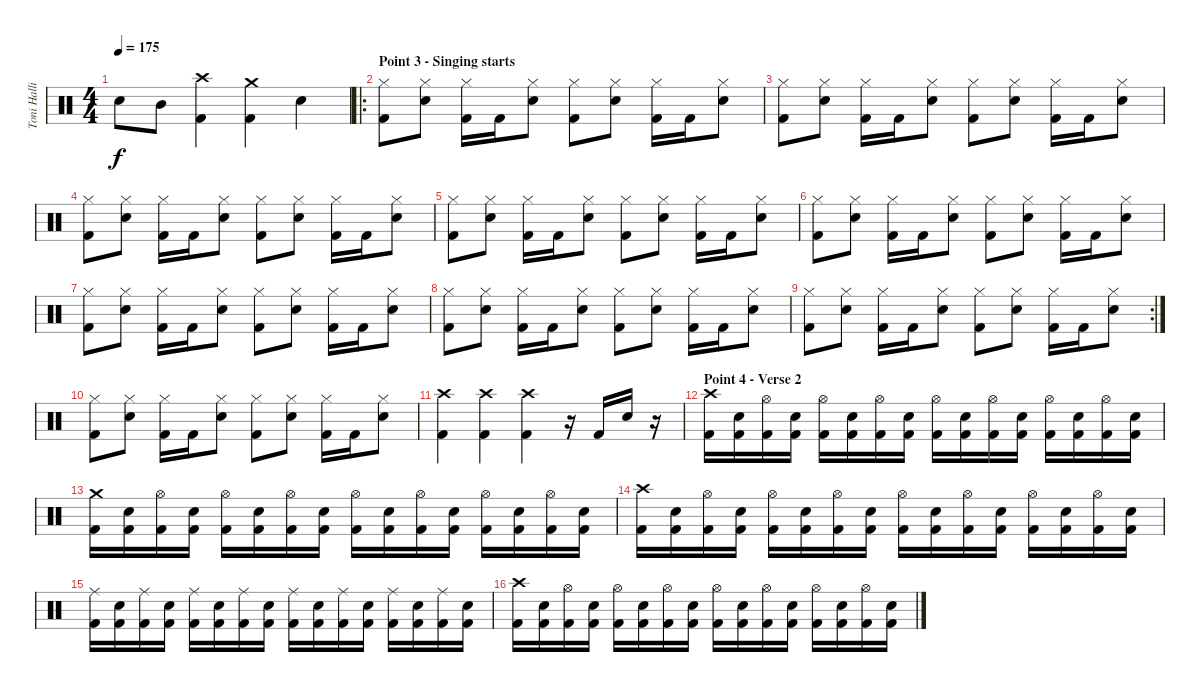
\track ("Toni Hallio" "Toni Halli") {instrument percussion}
\staff {score}
\articulation defaults
\ts (4 4)
\tempo 175
\clef neutral
\ks c "Snare (hit) 2".8{dy f} "Mid Tom (hit)".8
("Crash high (hit)" "Kick (hit) 2").4 ("Crash medium (hit)" "Kick (hit) 2").4 "Snare (hit) 2".4 |
\ro
\section ("" "Point 3 - Singing starts")
("Hi-Hat (closed)" "Kick (hit) 2").8 ("Hi-Hat (closed)" "Snare (hit) 2").8 ("Hi-Hat (closed)" "Kick (hit) 2").16 "Kick (hit) 2".16 ("Hi-Hat (closed)" "Snare (hit) 2").8 ("Hi-Hat (closed)" "Kick (hit) 2").8 ("Hi-Hat (closed)" "Snare (hit) 2").8 ("Hi-Hat (closed)" "Kick (hit) 2").16 "Kick (hit) 2".16 ("Hi-Hat (closed)" "Snare (hit) 2").8 |
("Hi-Hat (closed)" "Kick (hit) 2").8 ("Hi-Hat (closed)" "Snare (hit) 2").8 ("Hi-Hat (closed)" "Kick (hit) 2").16 "Kick (hit) 2".16 ("Hi-Hat (closed)" "Snare (hit) 2").8 ("Hi-Hat (closed)" "Kick (hit) 2").8 ("Hi-Hat (closed)" "Snare (hit) 2").8 ("Hi-Hat (closed)" "Kick (hit) 2").16 "Kick (hit) 2".16 ("Hi-Hat (closed)" "Snare (hit) 2").8 |
("Hi-Hat (closed)" "Kick (hit) 2").8 ("Hi-Hat (closed)" "Snare (hit) 2").8 ("Hi-Hat (closed)" "Kick (hit) 2").16 "Kick (hit) 2".16 ("Hi-Hat (closed)" "Snare (hit) 2").8 ("Hi-Hat (closed)" "Kick (hit) 2").8 ("Hi-Hat (closed)" "Snare (hit) 2").8 ("Hi-Hat (closed)" "Kick (hit) 2").16 "Kick (hit) 2".16 ("Hi-Hat (closed)" "Snare (hit) 2").8 |
("Hi-Hat (closed)" "Kick (hit) 2").8 ("Hi-Hat (closed)" "Snare (hit) 2").8 ("Hi-Hat (closed)" "Kick (hit) 2").16 "Kick (hit) 2".16 ("Hi-Hat (closed)" "Snare (hit) 2").8 ("Hi-Hat (closed)" "Kick (hit) 2").8 ("Hi-Hat (closed)" "Snare (hit) 2").8 ("Hi-Hat (closed)" "Kick (hit) 2").16 "Kick (hit) 2".16 ("Hi-Hat (closed)" "Snare (hit) 2").8 |
("Hi-Hat (closed)" "Kick (hit) 2").8 ("Hi-Hat (closed)" "Snare (hit) 2").8 ("Hi-Hat (closed)" "Kick (hit) 2").16 "Kick (hit) 2".16 ("Hi-Hat (closed)" "Snare (hit) 2").8 ("Hi-Hat (closed)" "Kick (hit) 2").8 ("Hi-Hat (closed)" "Snare (hit) 2").8 ("Hi-Hat (closed)" "Kick (hit) 2").16 "Kick (hit) 2".16 ("Hi-Hat (closed)" "Snare (hit) 2").8 |
("Hi-Hat (closed)" "Kick (hit) 2").8 ("Hi-Hat (closed)" "Snare (hit) 2").8 ("Hi-Hat (closed)" "Kick (hit) 2").16 "Kick (hit) 2".16 ("Hi-Hat (closed)" "Snare (hit) 2").8 ("Hi-Hat (closed)" "Kick (hit) 2").8 ("Hi-Hat (closed)" "Snare (hit) 2").8 ("Hi-Hat (closed)" "Kick (hit) 2").16 "Kick (hit) 2".16 ("Hi-Hat (closed)" "Snare (hit) 2").8 |
("Hi-Hat (closed)" "Kick (hit) 2").8 ("Hi-Hat (closed)" "Snare (hit) 2").8 ("Hi-Hat (closed)" "Kick (hit) 2").16 "Kick (hit) 2".16 ("Hi-Hat (closed)" "Snare (hit) 2").8 ("Hi-Hat (closed)" "Kick (hit) 2").8 ("Hi-Hat (closed)" "Snare (hit) 2").8 ("Hi-Hat (closed)" "Kick (hit) 2").16 "Kick (hit) 2".16 ("Hi-Hat (closed)" "Snare (hit) 2").8 |
\rc 2
("Hi-Hat (closed)" "Kick (hit) 2").8 ("Hi-Hat (closed)" "Snare (hit) 2").8 ("Hi-Hat (closed)" "Kick (hit) 2").16 "Kick (hit) 2".16 ("Hi-Hat (closed)" "Snare (hit) 2").8 ("Hi-Hat (closed)" "Kick (hit) 2").8 ("Hi-Hat (closed)" "Snare (hit) 2").8 ("Hi-Hat (closed)" "Kick (hit) 2").16 "Kick (hit) 2".16 ("Hi-Hat (closed)" "Snare (hit) 2").8 |
("Hi-Hat (closed)" "Kick (hit) 2").8 ("Hi-Hat (closed)" "Snare (hit) 2").8 ("Hi-Hat (closed)" "Kick (hit) 2").16 "Kick (hit) 2".16 ("Hi-Hat (closed)" "Snare (hit) 2").8 ("Hi-Hat (closed)" "Kick (hit) 2").8 ("Hi-Hat (closed)" "Snare (hit) 2").8 ("Hi-Hat (closed)" "Kick (hit) 2").16 "Kick (hit) 2".16 ("Hi-Hat (closed)" "Snare (hit) 2").8 |
("Crash high (hit)" "Kick (hit) 2").4 ("Crash high (hit)" "Kick (hit) 2").4 ("Crash high (hit)" "Kick (hit) 2").4 r.16 "Kick (hit) 2".16 "Snare (hit) 2".16 r.16 |
\section ("" "Point 4 - Verse 2")
("Crash high (hit)" "Kick (hit) 2").16 ("Snare (hit) 2" "Kick (hit) 2").16 ("Hi-Hat (open)" "Kick (hit) 2").16 ("Snare (hit) 2" "Kick (hit) 2").16 ("Hi-Hat (open)" "Kick (hit) 2").16 ("Snare (hit) 2" "Kick (hit) 2").16 ("Hi-Hat (open)" "Kick (hit) 2").16 ("Snare (hit) 2" "Kick (hit) 2").16 ("Hi-Hat (open)" "Kick (hit) 2").16 ("Snare (hit) 2" "Kick (hit) 2").16 ("Hi-Hat (open)" "Kick (hit) 2").16 ("Snare (hit) 2" "Kick (hit) 2").16 ("Hi-Hat (open)" "Kick (hit) 2").16 ("Snare (hit) 2" "Kick (hit) 2").16 ("Hi-Hat (open)" "Kick (hit) 2").16 ("Snare (hit) 2" "Kick (hit) 2").16 |
("Crash medium (hit)" "Kick (hit) 2").16 ("Snare (hit) 2" "Kick (hit) 2").16 ("Hi-Hat (open)" "Kick (hit) 2").16 ("Snare (hit) 2" "Kick (hit) 2").16 ("Hi-Hat (open)" "Kick (hit) 2").16 ("Snare (hit) 2" "Kick (hit) 2").16 ("Hi-Hat (open)" "Kick (hit) 2").16 ("Snare (hit) 2" "Kick (hit) 2").16 ("Hi-Hat (open)" "Kick (hit) 2").16 ("Snare (hit) 2" "Kick (hit) 2").16 ("Hi-Hat (open)" "Kick (hit) 2").16 ("Snare (hit) 2" "Kick (hit) 2").16 ("Hi-Hat (open)" "Kick (hit) 2").16 ("Snare (hit) 2" "Kick (hit) 2").16 ("Hi-Hat (open)" "Kick (hit) 2").16 ("Snare (hit) 2" "Kick (hit) 2").16 |
("Crash high (hit)" "Kick (hit) 2").16 ("Snare (hit) 2" "Kick (hit) 2").16 ("Hi-Hat (open)" "Kick (hit) 2").16 ("Snare (hit) 2" "Kick (hit) 2").16 ("Hi-Hat (open)" "Kick (hit) 2").16 ("Snare (hit) 2" "Kick (hit) 2").16 ("Hi-Hat (open)" "Kick (hit) 2").16 ("Snare (hit) 2" "Kick (hit) 2").16 ("Hi-Hat (open)" "Kick (hit) 2").16 ("Snare (hit) 2" "Kick (hit) 2").16 ("Hi-Hat (open)" "Kick (hit) 2").16 ("Snare (hit) 2" "Kick (hit) 2").16 ("Hi-Hat (open)" "Kick (hit) 2").16 ("Snare (hit) 2" "Kick (hit) 2").16 ("Hi-Hat (open)" "Kick (hit) 2").16 ("Snare (hit) 2" "Kick (hit) 2").16 |
("Ride (middle)" "Kick (hit) 2").16 ("Snare (hit) 2" "Kick (hit) 2").16 ("Ride (middle)" "Kick (hit) 2").16 ("Snare (hit) 2" "Kick (hit) 2").16 ("Ride (middle)" "Kick (hit) 2").16 ("Snare (hit) 2" "Kick (hit) 2").16 ("Ride (middle)" "Kick (hit) 2").16 ("Snare (hit) 2" "Kick (hit) 2").16 ("Ride (middle)" "Kick (hit) 2").16 ("Snare (hit) 2" "Kick (hit) 2").16 ("Ride (middle)" "Kick (hit) 2").16 ("Snare (hit) 2" "Kick (hit) 2").16 ("Ride (middle)" "Kick (hit) 2").16 ("Snare (hit) 2" "Kick (hit) 2").16 ("Ride (middle)" "Kick (hit) 2").16 ("Snare (hit) 2" "Kick (hit) 2").16 |
("Crash high (hit)" "Kick (hit) 2").16 ("Snare (hit) 2" "Kick (hit) 2").16 ("Hi-Hat (open)" "Kick (hit) 2").16 ("Snare (hit) 2" "Kick (hit) 2").16 ("Hi-Hat (open)" "Kick (hit) 2").16 ("Snare (hit) 2" "Kick (hit) 2").16 ("Hi-Hat (open)" "Kick (hit) 2").16 ("Snare (hit) 2" "Kick (hit) 2").16 ("Hi-Hat (open)" "Kick (hit) 2").16 ("Snare (hit) 2" "Kick (hit) 2").16 ("Hi-Hat (open)" "Kick (hit) 2").16 ("Snare (hit) 2" "Kick (hit) 2").16 ("Hi-Hat (open)" "Kick (hit) 2").16 ("Snare (hit) 2" "Kick (hit) 2").16 ("Hi-Hat (open)" "Kick (hit) 2").16 ("Snare (hit) 2" "Kick (hit) 2").16
